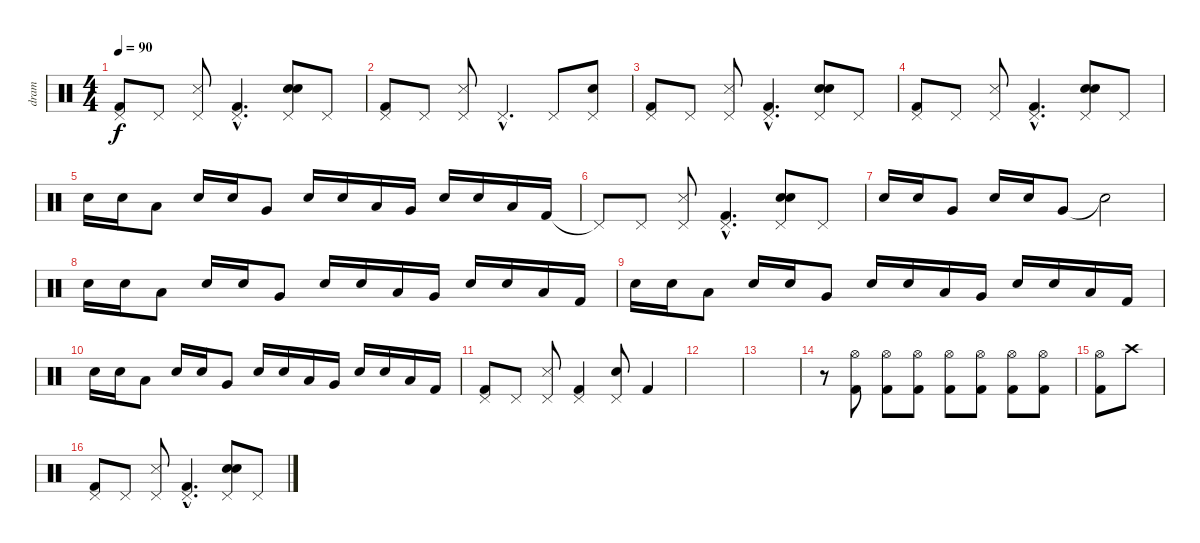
\track ("dram" "dram") {instrument percussion}
\staff {score}
\articulation defaults
\ts (4 4)
\tempo 90
\clef neutral
\ks c
("Pedal Hi-Hat (hit)" "Kick (hit) 2").8{dy f} "Pedal Hi-Hat (hit)".8 ("Pedal Hi-Hat (hit)" "Snare (side stick) 3").8 ("Pedal Hi-Hat (hit)"{hac} "Kick (hit) 2"{hac}).4{d} ("Pedal Hi-Hat (hit)" "Electric Snare (hit)" "Hand Clap (hit)").8 "Pedal Hi-Hat (hit)".8 |
("Pedal Hi-Hat (hit)" "Kick (hit) 2").8 "Pedal Hi-Hat (hit)".8 ("Pedal Hi-Hat (hit)" "Snare (side stick) 3").8 "Pedal Hi-Hat (hit)"{hac}.4{d} "Pedal Hi-Hat (hit)".8 ("Pedal Hi-Hat (hit)" "Electric Snare (hit)").8 |
("Pedal Hi-Hat (hit)" "Kick (hit) 2").8 "Pedal Hi-Hat (hit)".8 ("Pedal Hi-Hat (hit)" "Snare (side stick) 3").8 ("Pedal Hi-Hat (hit)"{hac} "Kick (hit) 2"{hac}).4{d} ("Pedal Hi-Hat (hit)" "Electric Snare (hit)" "Hand Clap (hit)").8 "Pedal Hi-Hat (hit)".8 |
("Pedal Hi-Hat (hit)" "Kick (hit) 2").8 "Pedal Hi-Hat (hit)".8 ("Pedal Hi-Hat (hit)" "Snare (side stick) 3").8 ("Pedal Hi-Hat (hit)"{hac} "Kick (hit) 2"{hac}).4{d} ("Pedal Hi-Hat (hit)" "Electric Snare (hit)" "Hand Clap (hit)").8 "Pedal Hi-Hat (hit)".8 |
"Electric Snare (hit)".16 "Electric Snare (hit)".16 "Low Tom (hit)".8 "Electric Snare (hit)".16 "Electric Snare (hit)".16 "Very Low Tom (hit)".8 "Electric Snare (hit)".16 "Electric Snare (hit)".16 "Low Tom (hit)".16 "Very Low Tom (hit)".16 "Electric Snare (hit)".16 "Electric Snare (hit)".16 "Low Tom (hit)".16 "Kick (hit) 2".16 |
"Pedal Hi-Hat (hit)"{t}.8 "Pedal Hi-Hat (hit)".8 ("Pedal Hi-Hat (hit)" "Snare (side stick) 3").8 ("Pedal Hi-Hat (hit)"{hac} "Kick (hit) 2"{hac}).4{d} ("Pedal Hi-Hat (hit)" "Electric Snare (hit)" "Hand Clap (hit)").8 "Pedal Hi-Hat (hit)".8 |
"Electric Snare (hit)".16 "Electric Snare (hit)".16 "Very Low Tom (hit)".8 "Electric Snare (hit)".16 "Electric Snare (hit)".16 "Very Low Tom (hit)".8 "Snare (hit)"{t}.2 |
"Electric Snare (hit)".16 "Electric Snare (hit)".16 "Low Tom (hit)".8 "Electric Snare (hit)".16 "Electric Snare (hit)".16 "Very Low Tom (hit)".8 "Electric Snare (hit)".16 "Electric Snare (hit)".16 "Low Tom (hit)".16 "Very Low Tom (hit)".16 "Electric Snare (hit)".16 "Electric Snare (hit)".16 "Low Tom (hit)".16 "Kick (hit) 2".16 |
"Electric Snare (hit)".16 "Electric Snare (hit)".16 "Low Tom (hit)".8 "Electric Snare (hit)".16 "Electric Snare (hit)".16 "Very Low Tom (hit)".8 "Electric Snare (hit)".16 "Electric Snare (hit)".16 "Low Tom (hit)".16 "Very Low Tom (hit)".16 "Electric Snare (hit)".16 "Electric Snare (hit)".16 "Low Tom (hit)".16 "Kick (hit) 2".16 |
"Electric Snare (hit)".16 "Electric Snare (hit)".16 "Low Tom (hit)".8 "Electric Snare (hit)".16 "Electric Snare (hit)".16 "Very Low Tom (hit)".8 "Electric Snare (hit)".16 "Electric Snare (hit)".16 "Low Tom (hit)".16 "Very Low Tom (hit)".16 "Electric Snare (hit)".16 "Electric Snare (hit)".16 "Low Tom (hit)".16 "Kick (hit) 2".16 |
("Pedal Hi-Hat (hit)" "Kick (hit) 2").8 "Pedal Hi-Hat (hit)".8 ("Pedal Hi-Hat (hit)" "Snare (side stick) 3").8 ("Pedal Hi-Hat (hit)" "Kick (hit) 2").4 ("Pedal Hi-Hat (hit)" "Electric Snare (hit)").8 "Kick (hit) 2".4 |
|
|
r.8 ("Kick (hit) 2" "Hi-Hat (open)").8 ("Kick (hit) 2" "Hi-Hat (open)").8 ("Kick (hit) 2" "Hi-Hat (open)").8 ("Kick (hit) 2" "Hi-Hat (open)").8 ("Kick (hit) 2" "Hi-Hat (open)").8 ("Kick (hit) 2" "Hi-Hat (open)").8 ("Kick (hit) 2" "Hi-Hat (open)").8 |
("Kick (hit) 2" "Hi-Hat (open)").8 "Crash high (hit)".8 |
("Pedal Hi-Hat (hit)" "Kick (hit) 2").8 "Pedal Hi-Hat (hit)".8 ("Pedal Hi-Hat (hit)" "Snare (side stick) 3").8 ("Pedal Hi-Hat (hit)"{hac} "Kick (hit) 2"{hac}).4{d} ("Pedal Hi-Hat (hit)" "Electric Snare (hit)" "Hand Clap (hit)").8 "Pedal Hi-Hat (hit)".8
